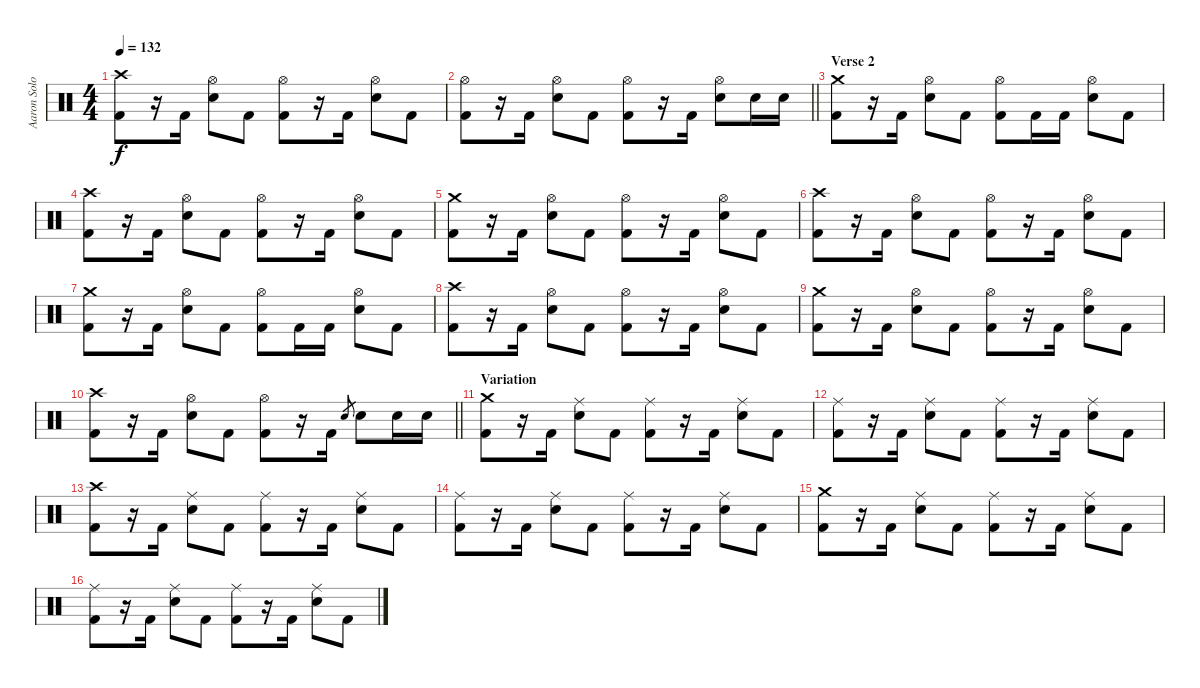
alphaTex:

\track ("Aaron Solowoniuk" "Aaron Solo") {instrument percussion}
\staff {score}
\articulation defaults
\ts (4 4)
\tempo 132
\clef neutral
\ks c
("Crash high (hit)" "Kick (hit) 2").8{dy f} r.16 "Kick (hit) 2".16 ("Hi-Hat (open)" "Electric Snare (hit)").8 "Kick (hit) 2".8 ("Hi-Hat (open)" "Kick (hit) 2").8 r.16 "Kick (hit) 2".16 ("Hi-Hat (open)" "Electric Snare (hit)").8 "Kick (hit) 2".8 |
\barLineRight lightlight
("Hi-Hat (open)" "Kick (hit) 2").8 r.16 "Kick (hit) 2".16 ("Hi-Hat (open)" "Electric Snare (hit)").8 "Kick (hit) 2".8 ("Hi-Hat (open)" "Kick (hit) 2").8 r.16 "Kick (hit) 2".16 ("Hi-Hat (open)" "Electric Snare (hit)").8 "Electric Snare (hit)".16 "Electric Snare (hit)".16 |
\section ("" "Verse 2")
("Crash medium (hit)" "Kick (hit) 2").8 r.16 "Kick (hit) 2".16 ("Hi-Hat (open)" "Electric Snare (hit)").8 "Kick (hit) 2".8 ("Hi-Hat (open)" "Kick (hit) 2").8 "Kick (hit) 2".16 "Kick (hit) 2".16 ("Hi-Hat (open)" "Electric Snare (hit)").8 "Kick (hit) 2".8 |
("Crash high (hit)" "Kick (hit) 2").8 r.16 "Kick (hit) 2".16 ("Hi-Hat (open)" "Electric Snare (hit)").8 "Kick (hit) 2".8 ("Hi-Hat (open)" "Kick (hit) 2").8 r.16 "Kick (hit) 2".16 ("Hi-Hat (open)" "Electric Snare (hit)").8 "Kick (hit) 2".8 |
("Crash medium (hit)" "Kick (hit) 2").8 r.16 "Kick (hit) 2".16 ("Hi-Hat (open)" "Electric Snare (hit)").8 "Kick (hit) 2".8 ("Hi-Hat (open)" "Kick (hit) 2").8 r.16 "Kick (hit) 2".16 ("Hi-Hat (open)" "Electric Snare (hit)").8 "Kick (hit) 2".8 |
("Crash high (hit)" "Kick (hit) 2").8 r.16 "Kick (hit) 2".16 ("Hi-Hat (open)" "Electric Snare (hit)").8 "Kick (hit) 2".8 ("Hi-Hat (open)" "Kick (hit) 2").8 r.16 "Kick (hit) 2".16 ("Hi-Hat (open)" "Electric Snare (hit)").8 "Kick (hit) 2".8 |
("Crash medium (hit)" "Kick (hit) 2").8 r.16 "Kick (hit) 2".16 ("Hi-Hat (open)" "Electric Snare (hit)").8 "Kick (hit) 2".8 ("Hi-Hat (open)" "Kick (hit) 2").8 "Kick (hit) 2".16 "Kick (hit) 2".16 ("Hi-Hat (open)" "Electric Snare (hit)").8 "Kick (hit) 2".8 |
("Crash high (hit)" "Kick (hit) 2").8 r.16 "Kick (hit) 2".16 ("Hi-Hat (open)" "Electric Snare (hit)").8 "Kick (hit) 2".8 ("Hi-Hat (open)" "Kick (hit) 2").8 r.16 "Kick (hit) 2".16 ("Hi-Hat (open)" "Electric Snare (hit)").8 "Kick (hit) 2".8 |
("Crash medium (hit)" "Kick (hit) 2").8 r.16 "Kick (hit) 2".16 ("Hi-Hat (open)" "Electric Snare (hit)").8 "Kick (hit) 2".8 ("Hi-Hat (open)" "Kick (hit) 2").8 r.16 "Kick (hit) 2".16 ("Hi-Hat (open)" "Electric Snare (hit)").8 "Kick (hit) 2".8 |
\barLineRight lightlight
("Crash high (hit)" "Kick (hit) 2").8 r.16 "Kick (hit) 2".16 ("Hi-Hat (open)" "Electric Snare (hit)").8 "Kick (hit) 2".8 ("Hi-Hat (open)" "Kick (hit) 2").8 r.16 "Kick (hit) 2".16 "Electric Snare (hit)".8{gr} "Electric Snare (hit)".8 "Electric Snare (hit)".16 "Electric Snare (hit)".16 |
\section ("" "Variation")
("Crash medium (hit)" "Kick (hit) 2").8 r.16 "Kick (hit) 2".16 ("Ride (middle)" "Electric Snare (hit)").8 "Kick (hit) 2".8 ("Ride (middle)" "Kick (hit) 2").8 r.16 "Kick (hit) 2".16 ("Ride (middle)" "Electric Snare (hit)").8 "Kick (hit) 2".8 |
("Ride (middle)" "Kick (hit) 2").8 r.16 "Kick (hit) 2".16 ("Ride (middle)" "Electric Snare (hit)").8 "Kick (hit) 2".8 ("Ride (middle)" "Kick (hit) 2").8 r.16 "Kick (hit) 2".16 ("Ride (middle)" "Electric Snare (hit)").8 "Kick (hit) 2".8 |
("Crash high (hit)" "Kick (hit) 2").8 r.16 "Kick (hit) 2".16 ("Ride (middle)" "Electric Snare (hit)").8 "Kick (hit) 2".8 ("Ride (middle)" "Kick (hit) 2").8 r.16 "Kick (hit) 2".16 ("Ride (middle)" "Electric Snare (hit)").8 "Kick (hit) 2".8 |
("Ride (middle)" "Kick (hit) 2").8 r.16 "Kick (hit) 2".16 ("Ride (middle)" "Electric Snare (hit)").8 "Kick (hit) 2".8 ("Ride (middle)" "Kick (hit) 2").8 r.16 "Kick (hit) 2".16 ("Ride (middle)" "Electric Snare (hit)").8 "Kick (hit) 2".8 |
("Crash medium (hit)" "Kick (hit) 2").8 r.16 "Kick (hit) 2".16 ("Ride (middle)" "Electric Snare (hit)").8 "Kick (hit) 2".8 ("Ride (middle)" "Kick (hit) 2").8 r.16 "Kick (hit) 2".16 ("Ride (middle)" "Electric Snare (hit)").8 "Kick (hit) 2".8 |
("Ride (middle)" "Kick (hit) 2").8 r.16 "Kick (hit) 2".16 ("Ride (middle)" "Electric Snare (hit)").8 "Kick (hit) 2".8 ("Ride (middle)" "Kick (hit) 2").8 r.16 "Kick (hit) 2".16 ("Ride (middle)" "Electric Snare (hit)").8 "Kick (hit) 2".8
